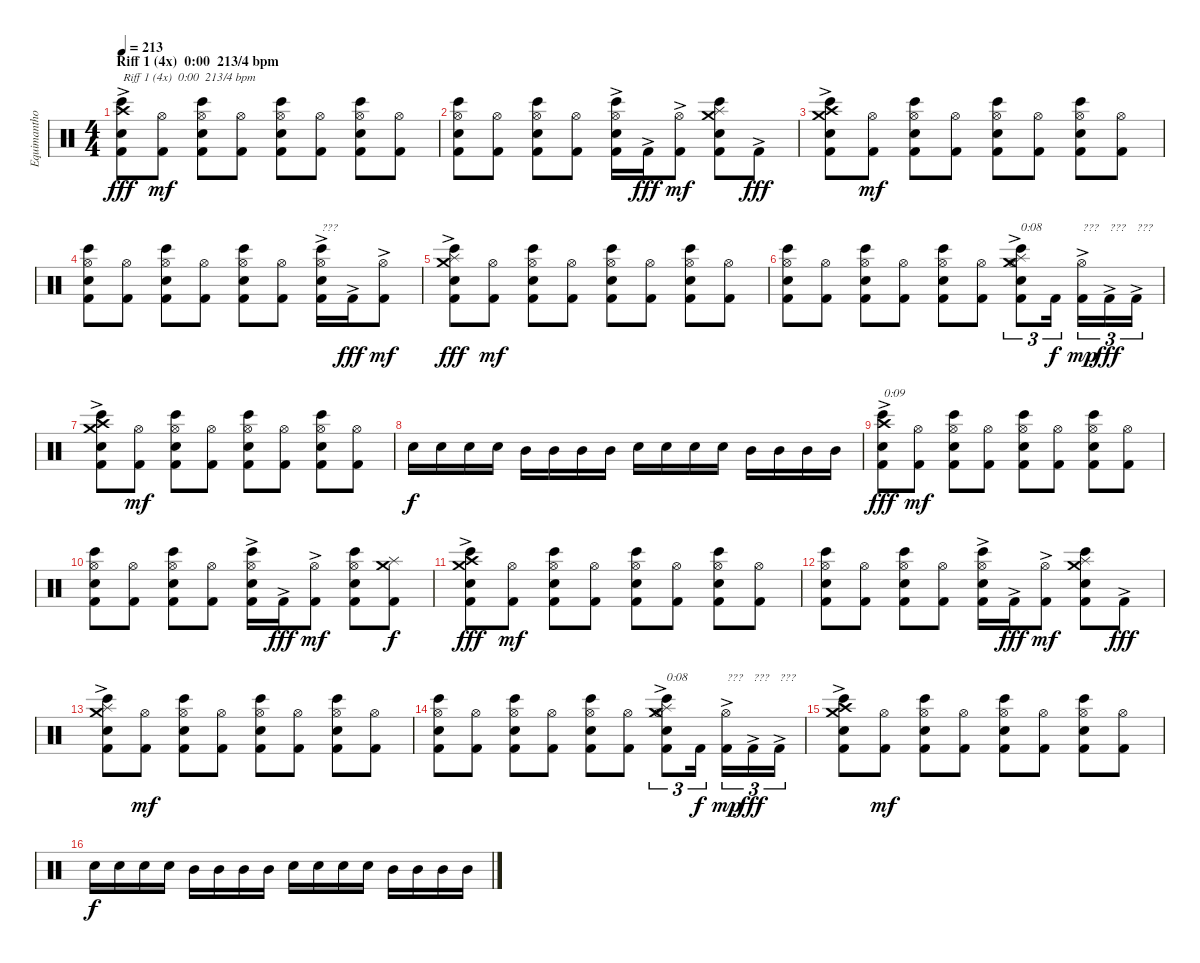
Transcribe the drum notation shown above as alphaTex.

\track ("Equimanthorn" "Equimantho") {instrument percussion}
\staff {score}
\articulation defaults
\ts (4 4)
\section ("" "Riff 1 (4x)  0:00  213/4 bpm")
\tempo 213
\clef neutral
\ks c
("Kick (hit) 2" "Bongo High (hit)" "Electric Snare (hit)" "Crash high (hit)"{ac}).8{txt "Riff 1 (4x)  0:00  213/4 bpm" dy fff} ("Kick (hit) 2" "Hi-Hat (open)").8{dy mf} ("Kick (hit) 2" "Bongo High (hit)" "Electric Snare (hit)" "Hi-Hat (open)").8 ("Kick (hit) 2" "Hi-Hat (open)").8 ("Kick (hit) 2" "Bongo High (hit)" "Electric Snare (hit)" "Hi-Hat (open)").8 ("Kick (hit) 2" "Hi-Hat (open)").8 ("Kick (hit) 2" "Bongo High (hit)" "Electric Snare (hit)" "Hi-Hat (open)").8 ("Kick (hit) 2" "Hi-Hat (open)").8 |
("Kick (hit) 2" "Bongo High (hit)" "Electric Snare (hit)" "Hi-Hat (open)").8 ("Kick (hit) 2" "Hi-Hat (open)").8 ("Kick (hit) 2" "Bongo High (hit)" "Electric Snare (hit)" "Hi-Hat (open)").8 ("Kick (hit) 2" "Hi-Hat (open)").8 ("Kick (hit) 2"{ac} "Bongo High (hit)" "Electric Snare (hit)" "Hi-Hat (open)").16 "Kick (hit) 2"{ac}.16{dy fff} ("Kick (hit) 2"{ac} "Hi-Hat (open)").8{dy mf} ("Kick (hit) 2" "Bongo High (hit)" "Electric Snare (hit)" "Splash (hit)" "Crash medium (hit)").8 "Kick (hit) 2"{ac}.8{dy fff} |
("Kick (hit) 2" "Bongo High (hit)" "Electric Snare (hit)" "Crash high (hit)"{ac} "Crash medium (hit)").8 ("Kick (hit) 2" "Hi-Hat (open)").8{dy mf} ("Kick (hit) 2" "Bongo High (hit)" "Electric Snare (hit)" "Hi-Hat (open)").8 ("Kick (hit) 2" "Hi-Hat (open)").8 ("Kick (hit) 2" "Bongo High (hit)" "Electric Snare (hit)" "Hi-Hat (open)").8 ("Kick (hit) 2" "Hi-Hat (open)").8 ("Kick (hit) 2" "Bongo High (hit)" "Electric Snare (hit)" "Hi-Hat (open)").8 ("Kick (hit) 2" "Hi-Hat (open)").8 |
("Kick (hit) 2" "Bongo High (hit)" "Electric Snare (hit)" "Hi-Hat (open)").8 ("Kick (hit) 2" "Hi-Hat (open)").8 ("Kick (hit) 2" "Bongo High (hit)" "Electric Snare (hit)" "Hi-Hat (open)").8 ("Kick (hit) 2" "Hi-Hat (open)").8 ("Kick (hit) 2" "Bongo High (hit)" "Electric Snare (hit)" "Hi-Hat (open)").8 ("Kick (hit) 2" "Hi-Hat (open)").8 ("Kick (hit) 2"{ac} "Bongo High (hit)" "Electric Snare (hit)" "Hi-Hat (open)").16{txt "???"} "Kick (hit) 2"{ac}.16{dy fff} ("Kick (hit) 2"{ac} "Hi-Hat (open)").8{dy mf} |
("Kick (hit) 2" "Bongo High (hit)" "Electric Snare (hit)" "Splash (hit)" "Crash medium (hit)"{ac}).8{dy fff} ("Kick (hit) 2" "Hi-Hat (open)").8{dy mf} ("Kick (hit) 2" "Bongo High (hit)" "Electric Snare (hit)" "Hi-Hat (open)").8 ("Kick (hit) 2" "Hi-Hat (open)").8 ("Kick (hit) 2" "Bongo High (hit)" "Electric Snare (hit)" "Hi-Hat (open)").8 ("Kick (hit) 2" "Hi-Hat (open)").8 ("Kick (hit) 2" "Bongo High (hit)" "Electric Snare (hit)" "Hi-Hat (open)").8 ("Kick (hit) 2" "Hi-Hat (open)").8 |
("Kick (hit) 2" "Bongo High (hit)" "Electric Snare (hit)" "Hi-Hat (open)").8 ("Kick (hit) 2" "Hi-Hat (open)").8 ("Kick (hit) 2" "Bongo High (hit)" "Electric Snare (hit)" "Hi-Hat (open)").8 ("Kick (hit) 2" "Hi-Hat (open)").8 ("Kick (hit) 2" "Bongo High (hit)" "Electric Snare (hit)" "Hi-Hat (open)").8 ("Kick (hit) 2" "Hi-Hat (open)").8 ("Kick (hit) 2"{ac} "Bongo High (hit)" "Electric Snare (hit)" "Hi-Hat (open)" "Splash (hit)" "Crash medium (hit)").8{tu (3 2) txt "0:08"} "Kick (hit) 2".16{tu (3 2) dy f} ("Kick (hit) 2"{ac} "Hi-Hat (open)").16{tu (3 2) txt "???" dy mp} "Kick (hit) 2"{ac}.16{tu (3 2) txt "???" dy fff} "Kick (hit) 2"{ac}.16{tu (3 2) txt "???"} |
("Kick (hit) 2" "Bongo High (hit)" "Electric Snare (hit)" "Crash high (hit)"{ac} "Crash medium (hit)").8 ("Kick (hit) 2" "Hi-Hat (open)").8{dy mf} ("Kick (hit) 2" "Bongo High (hit)" "Electric Snare (hit)" "Hi-Hat (open)").8 ("Kick (hit) 2" "Hi-Hat (open)").8 ("Kick (hit) 2" "Bongo High (hit)" "Electric Snare (hit)" "Hi-Hat (open)").8 ("Kick (hit) 2" "Hi-Hat (open)").8 ("Kick (hit) 2" "Bongo High (hit)" "Electric Snare (hit)" "Hi-Hat (open)").8 ("Kick (hit) 2" "Hi-Hat (open)").8 |
"Electric Snare (hit)".16{dy f} "Electric Snare (hit)".16 "Electric Snare (hit)".16 "Electric Snare (hit)".16 "Mid Tom (hit)".16 "Mid Tom (hit)".16 "Mid Tom (hit)".16 "Mid Tom (hit)".16 "Electric Snare (hit)".16 "Electric Snare (hit)".16 "Electric Snare (hit)".16 "Electric Snare (hit)".16 "Mid Tom (hit)".16 "Mid Tom (hit)".16 "Mid Tom (hit)".16 "Mid Tom (hit)".16 |
("Kick (hit) 2" "Bongo High (hit)" "Electric Snare (hit)" "Crash high (hit)"{ac}).8{txt "0:09" dy fff} ("Kick (hit) 2" "Hi-Hat (open)").8{dy mf} ("Kick (hit) 2" "Bongo High (hit)" "Electric Snare (hit)" "Hi-Hat (open)").8 ("Kick (hit) 2" "Hi-Hat (open)").8 ("Kick (hit) 2" "Bongo High (hit)" "Electric Snare (hit)" "Hi-Hat (open)").8 ("Kick (hit) 2" "Hi-Hat (open)").8 ("Kick (hit) 2" "Bongo High (hit)" "Electric Snare (hit)" "Hi-Hat (open)").8 ("Kick (hit) 2" "Hi-Hat (open)").8 |
("Kick (hit) 2" "Bongo High (hit)" "Electric Snare (hit)" "Hi-Hat (open)").8 ("Kick (hit) 2" "Hi-Hat (open)").8 ("Kick (hit) 2" "Bongo High (hit)" "Electric Snare (hit)" "Hi-Hat (open)").8 ("Kick (hit) 2" "Hi-Hat (open)").8 ("Kick (hit) 2"{ac} "Bongo High (hit)" "Electric Snare (hit)" "Hi-Hat (open)").16 "Kick (hit) 2"{ac}.16{dy fff} ("Kick (hit) 2"{ac} "Hi-Hat (open)").8{dy mf} ("Kick (hit) 2" "Bongo High (hit)" "Electric Snare (hit)" "Hi-Hat (open)").8 ("Kick (hit) 2" "Splash (hit)" "Crash medium (hit)").8{dy f} |
("Kick (hit) 2" "Bongo High (hit)" "Electric Snare (hit)" "Crash high (hit)"{ac} "Crash medium (hit)").8{dy fff} ("Kick (hit) 2" "Hi-Hat (open)").8{dy mf} ("Kick (hit) 2" "Bongo High (hit)" "Electric Snare (hit)" "Hi-Hat (open)").8 ("Kick (hit) 2" "Hi-Hat (open)").8 ("Kick (hit) 2" "Bongo High (hit)" "Electric Snare (hit)" "Hi-Hat (open)").8 ("Kick (hit) 2" "Hi-Hat (open)").8 ("Kick (hit) 2" "Bongo High (hit)" "Electric Snare (hit)" "Hi-Hat (open)").8 ("Kick (hit) 2" "Hi-Hat (open)").8 |
("Kick (hit) 2" "Bongo High (hit)" "Electric Snare (hit)" "Hi-Hat (open)").8 ("Kick (hit) 2" "Hi-Hat (open)").8 ("Kick (hit) 2" "Bongo High (hit)" "Electric Snare (hit)" "Hi-Hat (open)").8 ("Kick (hit) 2" "Hi-Hat (open)").8 ("Kick (hit) 2"{ac} "Bongo High (hit)" "Electric Snare (hit)" "Hi-Hat (open)").16 "Kick (hit) 2"{ac}.16{dy fff} ("Kick (hit) 2"{ac} "Hi-Hat (open)").8{dy mf} ("Kick (hit) 2" "Bongo High (hit)" "Electric Snare (hit)" "Splash (hit)" "Crash medium (hit)").8 "Kick (hit) 2"{ac}.8{dy fff} |
("Kick (hit) 2" "Bongo High (hit)" "Electric Snare (hit)" "Splash (hit)" "Crash medium (hit)"{ac}).8 ("Kick (hit) 2" "Hi-Hat (open)").8{dy mf} ("Kick (hit) 2" "Bongo High (hit)" "Electric Snare (hit)" "Hi-Hat (open)").8 ("Kick (hit) 2" "Hi-Hat (open)").8 ("Kick (hit) 2" "Bongo High (hit)" "Electric Snare (hit)" "Hi-Hat (open)").8 ("Kick (hit) 2" "Hi-Hat (open)").8 ("Kick (hit) 2" "Bongo High (hit)" "Electric Snare (hit)" "Hi-Hat (open)").8 ("Kick (hit) 2" "Hi-Hat (open)").8 |
("Kick (hit) 2" "Bongo High (hit)" "Electric Snare (hit)" "Hi-Hat (open)").8 ("Kick (hit) 2" "Hi-Hat (open)").8 ("Kick (hit) 2" "Bongo High (hit)" "Electric Snare (hit)" "Hi-Hat (open)").8 ("Kick (hit) 2" "Hi-Hat (open)").8 ("Kick (hit) 2" "Bongo High (hit)" "Electric Snare (hit)" "Hi-Hat (open)").8 ("Kick (hit) 2" "Hi-Hat (open)").8 ("Kick (hit) 2"{ac} "Bongo High (hit)" "Electric Snare (hit)" "Hi-Hat (open)" "Splash (hit)" "Crash medium (hit)").8{tu (3 2) txt "0:08"} "Kick (hit) 2".16{tu (3 2) dy f} ("Kick (hit) 2"{ac} "Hi-Hat (open)").16{tu (3 2) txt "???" dy mp} "Kick (hit) 2"{ac}.16{tu (3 2) txt "???" dy fff} "Kick (hit) 2"{ac}.16{tu (3 2) txt "???"} |
("Kick (hit) 2" "Bongo High (hit)" "Electric Snare (hit)" "Crash high (hit)"{ac} "Crash medium (hit)").8 ("Kick (hit) 2" "Hi-Hat (open)").8{dy mf} ("Kick (hit) 2" "Bongo High (hit)" "Electric Snare (hit)" "Hi-Hat (open)").8 ("Kick (hit) 2" "Hi-Hat (open)").8 ("Kick (hit) 2" "Bongo High (hit)" "Electric Snare (hit)" "Hi-Hat (open)").8 ("Kick (hit) 2" "Hi-Hat (open)").8 ("Kick (hit) 2" "Bongo High (hit)" "Electric Snare (hit)" "Hi-Hat (open)").8 ("Kick (hit) 2" "Hi-Hat (open)").8 |
"Electric Snare (hit)".16{dy f} "Electric Snare (hit)".16 "Electric Snare (hit)".16 "Electric Snare (hit)".16 "Mid Tom (hit)".16 "Mid Tom (hit)".16 "Mid Tom (hit)".16 "Mid Tom (hit)".16 "Electric Snare (hit)".16 "Electric Snare (hit)".16 "Electric Snare (hit)".16 "Electric Snare (hit)".16 "Mid Tom (hit)".16 "Mid Tom (hit)".16 "Mid Tom (hit)".16 "Mid Tom (hit)".16
